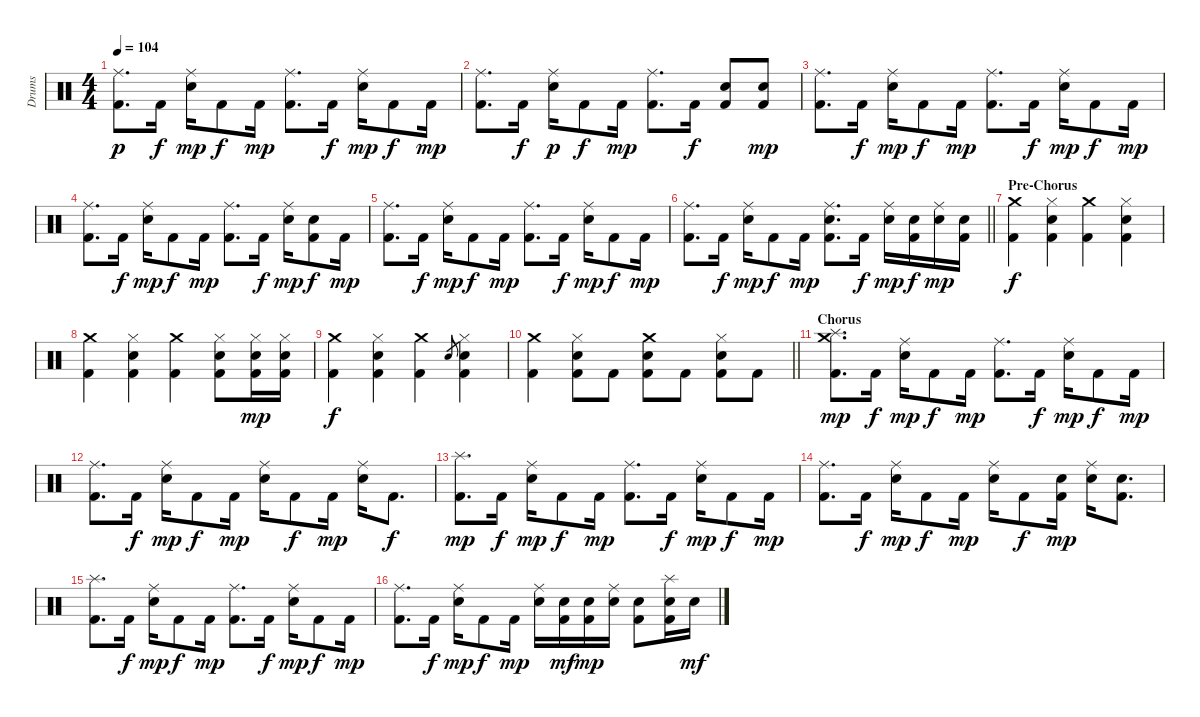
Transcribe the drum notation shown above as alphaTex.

\track ("Drums" "Drums") {instrument percussion}
\staff {score}
\articulation defaults
\ts (4 4)
\tempo 104
\clef neutral
\ks c
("Ride (middle)" "Kick (hit) 2").8{d dy p} "Kick (hit) 2".16{dy f} ("Ride (middle)" "Electric Snare (hit)").16{dy mp} "Kick (hit) 2".8{dy f} "Kick (hit) 2".16{dy mp} ("Ride (middle)" "Kick (hit) 2").8{d} "Kick (hit) 2".16{dy f} ("Ride (middle)" "Electric Snare (hit)").16{dy mp} "Kick (hit) 2".8{dy f} "Kick (hit) 2".16{dy mp} |
("Ride (middle)" "Kick (hit) 2").8{d} "Kick (hit) 2".16{dy f} ("Ride (middle)" "Electric Snare (hit)").16{dy p} "Kick (hit) 2".8{dy f} "Kick (hit) 2".16{dy mp} ("Ride (middle)" "Kick (hit) 2").8{d} "Kick (hit) 2".16{dy f} ("Electric Snare (hit)" "Kick (hit) 2").8 ("Electric Snare (hit)" "Kick (hit) 2").8{dy mp} |
("Ride (middle)" "Kick (hit) 2").8{d} "Kick (hit) 2".16{dy f} ("Ride (middle)" "Electric Snare (hit)").16{dy mp} "Kick (hit) 2".8{dy f} "Kick (hit) 2".16{dy mp} ("Ride (middle)" "Kick (hit) 2").8{d} "Kick (hit) 2".16{dy f} ("Ride (middle)" "Electric Snare (hit)").16{dy mp} "Kick (hit) 2".8{dy f} "Kick (hit) 2".16{dy mp} |
("Ride (middle)" "Kick (hit) 2").8{d} "Kick (hit) 2".16{dy f} ("Ride (middle)" "Electric Snare (hit)").16{dy mp} "Kick (hit) 2".8{dy f} "Kick (hit) 2".16{dy mp} ("Ride (middle)" "Kick (hit) 2").8{d} "Kick (hit) 2".16{dy f} ("Ride (middle)" "Electric Snare (hit)").16{dy mp} ("Electric Snare (hit)" "Kick (hit) 2").8{dy f} "Kick (hit) 2".16{dy mp} |
("Ride (middle)" "Kick (hit) 2").8{d} "Kick (hit) 2".16{dy f} ("Ride (middle)" "Electric Snare (hit)").16{dy mp} "Kick (hit) 2".8{dy f} "Kick (hit) 2".16{dy mp} ("Ride (middle)" "Kick (hit) 2").8{d} "Kick (hit) 2".16{dy f} ("Ride (middle)" "Electric Snare (hit)").16{dy mp} "Kick (hit) 2".8{dy f} "Kick (hit) 2".16{dy mp} |
\barLineRight lightlight
("Ride (middle)" "Kick (hit) 2").8{d} "Kick (hit) 2".16{dy f} ("Ride (middle)" "Electric Snare (hit)").16{dy mp} "Kick (hit) 2".8{dy f} "Kick (hit) 2".16{dy mp} ("Ride (middle)" "Electric Snare (hit)" "Kick (hit) 2").8{d} "Kick (hit) 2".16{dy f} ("Ride (middle)" "Electric Snare (hit)").16{dy mp} ("Electric Snare (hit)" "Kick (hit) 2").16{dy f} ("Ride (middle)" "Electric Snare (hit)").16{dy mp} ("Electric Snare (hit)" "Kick (hit) 2").16 |
\section ("" "Pre-Chorus")
("Crash medium (hit)" "Kick (hit) 2").4{dy f} ("Hi-Hat (closed)" "Electric Snare (hit)" "Kick (hit) 2").4 ("Crash medium (hit)" "Kick (hit) 2").4 ("Hi-Hat (closed)" "Electric Snare (hit)" "Kick (hit) 2").4 |
("Crash medium (hit)" "Kick (hit) 2").4 ("Hi-Hat (closed)" "Electric Snare (hit)" "Kick (hit) 2").4 ("Crash medium (hit)" "Kick (hit) 2").4 ("Hi-Hat (closed)" "Electric Snare (hit)" "Kick (hit) 2").8 ("Hi-Hat (closed)" "Electric Snare (hit)" "Kick (hit) 2").16{dy mp} ("Hi-Hat (closed)" "Electric Snare (hit)" "Kick (hit) 2").16 |
("Crash medium (hit)" "Kick (hit) 2").4{dy f} ("Hi-Hat (closed)" "Electric Snare (hit)" "Kick (hit) 2").4 ("Crash medium (hit)" "Kick (hit) 2").4 "Electric Snare (hit)".8{gr} ("Hi-Hat (closed)" "Electric Snare (hit)" "Kick (hit) 2").4 |
\barLineRight lightlight
("Crash medium (hit)" "Kick (hit) 2").4 ("Hi-Hat (closed)" "Electric Snare (hit)" "Kick (hit) 2").8 "Kick (hit) 2".8 ("Crash medium (hit)" "Electric Snare (hit)" "Kick (hit) 2").8 "Kick (hit) 2".8 ("Hi-Hat (closed)" "Electric Snare (hit)" "Kick (hit) 2").8 "Kick (hit) 2".8 |
\section ("" "Chorus")
("Splash (hit)" "Crash medium (hit)" "Kick (hit) 2").8{d dy mp} "Kick (hit) 2".16{dy f} ("Ride (middle)" "Electric Snare (hit)").16{dy mp} "Kick (hit) 2".8{dy f} "Kick (hit) 2".16{dy mp} ("Ride (middle)" "Kick (hit) 2").8{d} "Kick (hit) 2".16{dy f} ("Ride (middle)" "Electric Snare (hit)").16{dy mp} "Kick (hit) 2".8{dy f} "Kick (hit) 2".16{dy mp} |
("Ride (middle)" "Kick (hit) 2").8{d} "Kick (hit) 2".16{dy f} ("Ride (middle)" "Electric Snare (hit)").16{dy mp} "Kick (hit) 2".8{dy f} "Kick (hit) 2".16{dy mp} ("Ride (middle)" "Electric Snare (hit)").16 "Kick (hit) 2".8{dy f} "Kick (hit) 2".16{dy mp} ("Ride (middle)" "Electric Snare (hit)").16 "Kick (hit) 2".8{d dy f} |
("Splash (hit)" "Kick (hit) 2").8{d dy mp} "Kick (hit) 2".16{dy f} ("Ride (middle)" "Electric Snare (hit)").16{dy mp} "Kick (hit) 2".8{dy f} "Kick (hit) 2".16{dy mp} ("Ride (middle)" "Kick (hit) 2").8{d} "Kick (hit) 2".16{dy f} ("Ride (middle)" "Electric Snare (hit)").16{dy mp} "Kick (hit) 2".8{dy f} "Kick (hit) 2".16{dy mp} |
("Ride (middle)" "Kick (hit) 2").8{d} "Kick (hit) 2".16{dy f} ("Ride (middle)" "Electric Snare (hit)").16{dy mp} "Kick (hit) 2".8{dy f} "Kick (hit) 2".16{dy mp} ("Ride (middle)" "Electric Snare (hit)").16 "Kick (hit) 2".8{dy f} ("Electric Snare (hit)" "Kick (hit) 2").16{dy mp} ("Ride (middle)" "Electric Snare (hit)").16 ("Electric Snare (hit)" "Kick (hit) 2").8{d} |
("Splash (hit)" "Kick (hit) 2").8{d} "Kick (hit) 2".16{dy f} ("Ride (middle)" "Electric Snare (hit)").16{dy mp} "Kick (hit) 2".8{dy f} "Kick (hit) 2".16{dy mp} ("Ride (middle)" "Kick (hit) 2").8{d} "Kick (hit) 2".16{dy f} ("Ride (middle)" "Electric Snare (hit)").16{dy mp} "Kick (hit) 2".8{dy f} "Kick (hit) 2".16{dy mp} |
("Ride (middle)" "Kick (hit) 2").8{d} "Kick (hit) 2".16{dy f} ("Ride (middle)" "Electric Snare (hit)").16{dy mp} "Kick (hit) 2".8{dy f} "Kick (hit) 2".16{dy mp} ("Ride (middle)" "Electric Snare (hit)").16 ("Electric Snare (hit)" "Kick (hit) 2").16{dy mf} ("Electric Snare (hit)" "Kick (hit) 2").16{dy mp} ("Ride (middle)" "Electric Snare (hit)").16 ("Electric Snare (hit)" "Kick (hit) 2").8 ("Splash (hit)" "Electric Snare (hit)" "Kick (hit) 2").16 "Electric Snare (hit)".16{dy mf}
